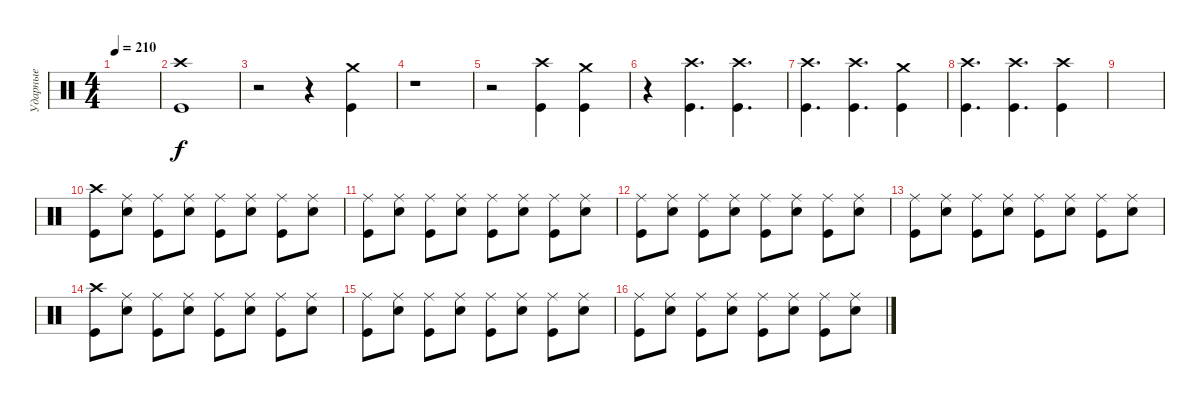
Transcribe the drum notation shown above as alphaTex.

\track ("Ударные" "Ударные") {instrument percussion}
\staff {score}
\articulation defaults
\ts (4 4)
\tempo 210
\clef neutral
\ks c
|
("Crash high (hit)" "Kick (hit)").1 |
r.2 r.4 ("Crash medium (hit)" "Kick (hit)").4 |
r.1 |
r.2 ("Crash high (hit)" "Kick (hit)").4 ("Crash medium (hit)" "Kick (hit)").4 |
r.4 ("Crash high (hit)" "Kick (hit)").4{d} ("Crash high (hit)" "Kick (hit)").4{d} |
("Crash high (hit)" "Kick (hit)").4{d} ("Crash high (hit)" "Kick (hit)").4{d} ("Crash medium (hit)" "Kick (hit)").4 |
("Crash high (hit)" "Kick (hit)").4{d} ("Crash high (hit)" "Kick (hit)").4{d} ("Crash high (hit)" "Kick (hit)").4 |
|
("Crash high (hit)" "Kick (hit)").8 ("Ride (middle)" "Snare (hit) 2").8 ("Ride (middle)" "Kick (hit)").8 ("Ride (middle)" "Snare (hit) 2").8 ("Ride (middle)" "Kick (hit)").8 ("Ride (middle)" "Snare (hit) 2").8 ("Ride (middle)" "Kick (hit)").8 ("Ride (middle)" "Snare (hit) 2").8 |
("Ride (middle)" "Kick (hit)").8 ("Ride (middle)" "Snare (hit) 2").8 ("Ride (middle)" "Kick (hit)").8 ("Ride (middle)" "Snare (hit) 2").8 ("Ride (middle)" "Kick (hit)").8 ("Ride (middle)" "Snare (hit) 2").8 ("Ride (middle)" "Kick (hit)").8 ("Ride (middle)" "Snare (hit) 2").8 |
("Ride (middle)" "Kick (hit)").8 ("Ride (middle)" "Snare (hit) 2").8 ("Ride (middle)" "Kick (hit)").8 ("Ride (middle)" "Snare (hit) 2").8 ("Ride (middle)" "Kick (hit)").8 ("Ride (middle)" "Snare (hit) 2").8 ("Ride (middle)" "Kick (hit)").8 ("Ride (middle)" "Snare (hit) 2").8 |
("Ride (middle)" "Kick (hit)").8 ("Ride (middle)" "Snare (hit) 2").8 ("Ride (middle)" "Kick (hit)").8 ("Ride (middle)" "Snare (hit) 2").8 ("Ride (middle)" "Kick (hit)").8 ("Ride (middle)" "Snare (hit) 2").8 ("Ride (middle)" "Kick (hit)").8 ("Ride (middle)" "Snare (hit) 2").8 |
("Crash high (hit)" "Kick (hit)").8 ("Ride (middle)" "Snare (hit) 2").8 ("Ride (middle)" "Kick (hit)").8 ("Ride (middle)" "Snare (hit) 2").8 ("Ride (middle)" "Kick (hit)").8 ("Ride (middle)" "Snare (hit) 2").8 ("Ride (middle)" "Kick (hit)").8 ("Ride (middle)" "Snare (hit) 2").8 |
("Ride (middle)" "Kick (hit)").8 ("Ride (middle)" "Snare (hit) 2").8 ("Ride (middle)" "Kick (hit)").8 ("Ride (middle)" "Snare (hit) 2").8 ("Ride (middle)" "Kick (hit)").8 ("Ride (middle)" "Snare (hit) 2").8 ("Ride (middle)" "Kick (hit)").8 ("Ride (middle)" "Snare (hit) 2").8 |
("Ride (middle)" "Kick (hit)").8 ("Ride (middle)" "Snare (hit) 2").8 ("Ride (middle)" "Kick (hit)").8 ("Ride (middle)" "Snare (hit) 2").8 ("Ride (middle)" "Kick (hit)").8 ("Ride (middle)" "Snare (hit) 2").8 ("Ride (middle)" "Kick (hit)").8 ("Ride (middle)" "Snare (hit) 2").8
